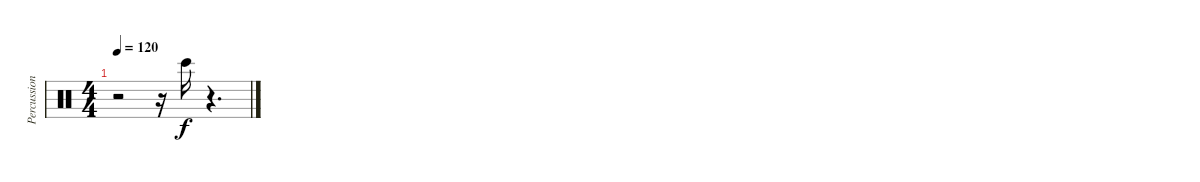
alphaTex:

\track ("Percussions" "Percussion") {instrument percussion}
\staff {score}
\articulation defaults
\ts (4 4)
\tempo 120
\clef neutral
\ks c
r.2{dy f} r.16 "Bongo High (hit)".16 r.4{d}
